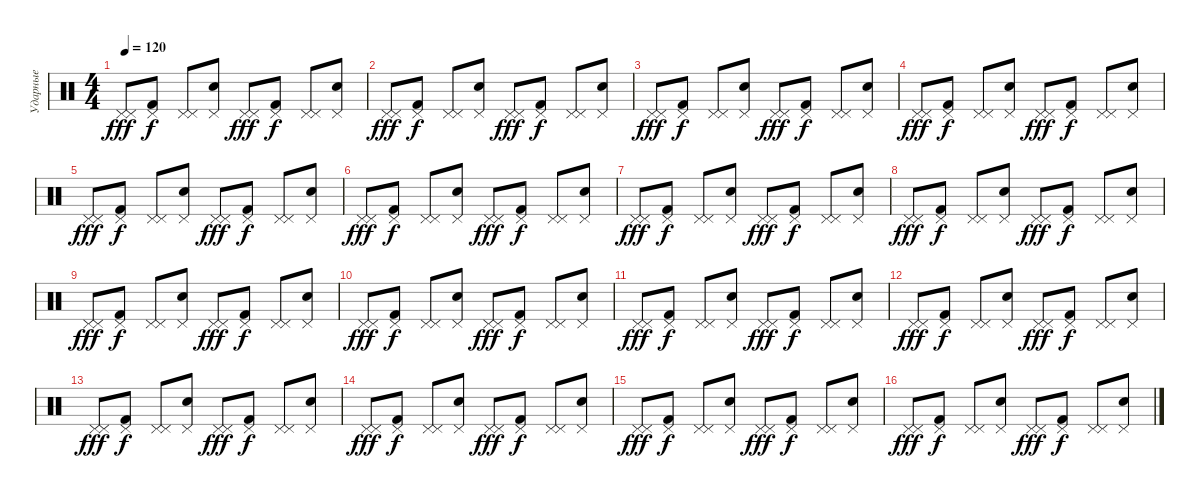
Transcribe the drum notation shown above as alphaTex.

\track ("Ударные" "Ударные") {instrument percussion}
\staff {score}
\articulation defaults
\ts (4 4)
\tempo 120
\clef neutral
\ks c
("Pedal Hi-Hat (hit)" "Pedal Hi-Hat (hit)").8{dy fff} ("Pedal Hi-Hat (hit)" "Kick (hit) 2").8{dy f} ("Pedal Hi-Hat (hit)" "Pedal Hi-Hat (hit)").8 ("Pedal Hi-Hat (hit)" "Hand Clap (hit)").8 ("Pedal Hi-Hat (hit)" "Pedal Hi-Hat (hit)").8{dy fff} ("Pedal Hi-Hat (hit)" "Kick (hit) 2").8{dy f} ("Pedal Hi-Hat (hit)" "Pedal Hi-Hat (hit)").8 ("Pedal Hi-Hat (hit)" "Hand Clap (hit)").8 |
("Pedal Hi-Hat (hit)" "Pedal Hi-Hat (hit)").8{dy fff} ("Pedal Hi-Hat (hit)" "Kick (hit) 2").8{dy f} ("Pedal Hi-Hat (hit)" "Pedal Hi-Hat (hit)").8 ("Pedal Hi-Hat (hit)" "Hand Clap (hit)").8 ("Pedal Hi-Hat (hit)" "Pedal Hi-Hat (hit)").8{dy fff} ("Pedal Hi-Hat (hit)" "Kick (hit) 2").8{dy f} ("Pedal Hi-Hat (hit)" "Pedal Hi-Hat (hit)").8 ("Pedal Hi-Hat (hit)" "Hand Clap (hit)").8 |
("Pedal Hi-Hat (hit)" "Pedal Hi-Hat (hit)").8{dy fff} ("Pedal Hi-Hat (hit)" "Kick (hit) 2").8{dy f} ("Pedal Hi-Hat (hit)" "Pedal Hi-Hat (hit)").8 ("Pedal Hi-Hat (hit)" "Hand Clap (hit)").8 ("Pedal Hi-Hat (hit)" "Pedal Hi-Hat (hit)").8{dy fff} ("Pedal Hi-Hat (hit)" "Kick (hit) 2").8{dy f} ("Pedal Hi-Hat (hit)" "Pedal Hi-Hat (hit)").8 ("Pedal Hi-Hat (hit)" "Hand Clap (hit)").8 |
("Pedal Hi-Hat (hit)" "Pedal Hi-Hat (hit)").8{dy fff} ("Pedal Hi-Hat (hit)" "Kick (hit) 2").8{dy f} ("Pedal Hi-Hat (hit)" "Pedal Hi-Hat (hit)").8 ("Pedal Hi-Hat (hit)" "Hand Clap (hit)").8 ("Pedal Hi-Hat (hit)" "Pedal Hi-Hat (hit)").8{dy fff} ("Pedal Hi-Hat (hit)" "Kick (hit) 2").8{dy f} ("Pedal Hi-Hat (hit)" "Pedal Hi-Hat (hit)").8 ("Pedal Hi-Hat (hit)" "Hand Clap (hit)").8 |
("Pedal Hi-Hat (hit)" "Pedal Hi-Hat (hit)").8{dy fff} ("Pedal Hi-Hat (hit)" "Kick (hit) 2").8{dy f} ("Pedal Hi-Hat (hit)" "Pedal Hi-Hat (hit)").8 ("Pedal Hi-Hat (hit)" "Hand Clap (hit)").8 ("Pedal Hi-Hat (hit)" "Pedal Hi-Hat (hit)").8{dy fff} ("Pedal Hi-Hat (hit)" "Kick (hit) 2").8{dy f} ("Pedal Hi-Hat (hit)" "Pedal Hi-Hat (hit)").8 ("Pedal Hi-Hat (hit)" "Hand Clap (hit)").8 |
("Pedal Hi-Hat (hit)" "Pedal Hi-Hat (hit)").8{dy fff} ("Pedal Hi-Hat (hit)" "Kick (hit) 2").8{dy f} ("Pedal Hi-Hat (hit)" "Pedal Hi-Hat (hit)").8 ("Pedal Hi-Hat (hit)" "Hand Clap (hit)").8 ("Pedal Hi-Hat (hit)" "Pedal Hi-Hat (hit)").8{dy fff} ("Pedal Hi-Hat (hit)" "Kick (hit) 2").8{dy f} ("Pedal Hi-Hat (hit)" "Pedal Hi-Hat (hit)").8 ("Pedal Hi-Hat (hit)" "Hand Clap (hit)").8 |
("Pedal Hi-Hat (hit)" "Pedal Hi-Hat (hit)").8{dy fff} ("Pedal Hi-Hat (hit)" "Kick (hit) 2").8{dy f} ("Pedal Hi-Hat (hit)" "Pedal Hi-Hat (hit)").8 ("Pedal Hi-Hat (hit)" "Hand Clap (hit)").8 ("Pedal Hi-Hat (hit)" "Pedal Hi-Hat (hit)").8{dy fff} ("Pedal Hi-Hat (hit)" "Kick (hit) 2").8{dy f} ("Pedal Hi-Hat (hit)" "Pedal Hi-Hat (hit)").8 ("Pedal Hi-Hat (hit)" "Hand Clap (hit)").8 |
("Pedal Hi-Hat (hit)" "Pedal Hi-Hat (hit)").8{dy fff} ("Pedal Hi-Hat (hit)" "Kick (hit) 2").8{dy f} ("Pedal Hi-Hat (hit)" "Pedal Hi-Hat (hit)").8 ("Pedal Hi-Hat (hit)" "Hand Clap (hit)").8 ("Pedal Hi-Hat (hit)" "Pedal Hi-Hat (hit)").8{dy fff} ("Pedal Hi-Hat (hit)" "Kick (hit) 2").8{dy f} ("Pedal Hi-Hat (hit)" "Pedal Hi-Hat (hit)").8 ("Pedal Hi-Hat (hit)" "Hand Clap (hit)").8 |
("Pedal Hi-Hat (hit)" "Pedal Hi-Hat (hit)").8{dy fff} ("Pedal Hi-Hat (hit)" "Kick (hit) 2").8{dy f} ("Pedal Hi-Hat (hit)" "Pedal Hi-Hat (hit)").8 ("Pedal Hi-Hat (hit)" "Hand Clap (hit)").8 ("Pedal Hi-Hat (hit)" "Pedal Hi-Hat (hit)").8{dy fff} ("Pedal Hi-Hat (hit)" "Kick (hit) 2").8{dy f} ("Pedal Hi-Hat (hit)" "Pedal Hi-Hat (hit)").8 ("Pedal Hi-Hat (hit)" "Hand Clap (hit)").8 |
("Pedal Hi-Hat (hit)" "Pedal Hi-Hat (hit)").8{dy fff} ("Pedal Hi-Hat (hit)" "Kick (hit) 2").8{dy f} ("Pedal Hi-Hat (hit)" "Pedal Hi-Hat (hit)").8 ("Pedal Hi-Hat (hit)" "Hand Clap (hit)").8 ("Pedal Hi-Hat (hit)" "Pedal Hi-Hat (hit)").8{dy fff} ("Pedal Hi-Hat (hit)" "Kick (hit) 2").8{dy f} ("Pedal Hi-Hat (hit)" "Pedal Hi-Hat (hit)").8 ("Pedal Hi-Hat (hit)" "Hand Clap (hit)").8 |
("Pedal Hi-Hat (hit)" "Pedal Hi-Hat (hit)").8{dy fff} ("Pedal Hi-Hat (hit)" "Kick (hit) 2").8{dy f} ("Pedal Hi-Hat (hit)" "Pedal Hi-Hat (hit)").8 ("Pedal Hi-Hat (hit)" "Hand Clap (hit)").8 ("Pedal Hi-Hat (hit)" "Pedal Hi-Hat (hit)").8{dy fff} ("Pedal Hi-Hat (hit)" "Kick (hit) 2").8{dy f} ("Pedal Hi-Hat (hit)" "Pedal Hi-Hat (hit)").8 ("Pedal Hi-Hat (hit)" "Hand Clap (hit)").8 |
("Pedal Hi-Hat (hit)" "Pedal Hi-Hat (hit)").8{dy fff} ("Pedal Hi-Hat (hit)" "Kick (hit) 2").8{dy f} ("Pedal Hi-Hat (hit)" "Pedal Hi-Hat (hit)").8 ("Pedal Hi-Hat (hit)" "Hand Clap (hit)").8 ("Pedal Hi-Hat (hit)" "Pedal Hi-Hat (hit)").8{dy fff} ("Pedal Hi-Hat (hit)" "Kick (hit) 2").8{dy f} ("Pedal Hi-Hat (hit)" "Pedal Hi-Hat (hit)").8 ("Pedal Hi-Hat (hit)" "Hand Clap (hit)").8 |
("Pedal Hi-Hat (hit)" "Pedal Hi-Hat (hit)").8{dy fff} ("Pedal Hi-Hat (hit)" "Kick (hit) 2").8{dy f} ("Pedal Hi-Hat (hit)" "Pedal Hi-Hat (hit)").8 ("Pedal Hi-Hat (hit)" "Hand Clap (hit)").8 ("Pedal Hi-Hat (hit)" "Pedal Hi-Hat (hit)").8{dy fff} ("Pedal Hi-Hat (hit)" "Kick (hit) 2").8{dy f} ("Pedal Hi-Hat (hit)" "Pedal Hi-Hat (hit)").8 ("Pedal Hi-Hat (hit)" "Hand Clap (hit)").8 |
("Pedal Hi-Hat (hit)" "Pedal Hi-Hat (hit)").8{dy fff} ("Pedal Hi-Hat (hit)" "Kick (hit) 2").8{dy f} ("Pedal Hi-Hat (hit)" "Pedal Hi-Hat (hit)").8 ("Pedal Hi-Hat (hit)" "Hand Clap (hit)").8 ("Pedal Hi-Hat (hit)" "Pedal Hi-Hat (hit)").8{dy fff} ("Pedal Hi-Hat (hit)" "Kick (hit) 2").8{dy f} ("Pedal Hi-Hat (hit)" "Pedal Hi-Hat (hit)").8 ("Pedal Hi-Hat (hit)" "Hand Clap (hit)").8 |
("Pedal Hi-Hat (hit)" "Pedal Hi-Hat (hit)").8{dy fff} ("Pedal Hi-Hat (hit)" "Kick (hit) 2").8{dy f} ("Pedal Hi-Hat (hit)" "Pedal Hi-Hat (hit)").8 ("Pedal Hi-Hat (hit)" "Hand Clap (hit)").8 ("Pedal Hi-Hat (hit)" "Pedal Hi-Hat (hit)").8{dy fff} ("Pedal Hi-Hat (hit)" "Kick (hit) 2").8{dy f} ("Pedal Hi-Hat (hit)" "Pedal Hi-Hat (hit)").8 ("Pedal Hi-Hat (hit)" "Hand Clap (hit)").8 |
("Pedal Hi-Hat (hit)" "Pedal Hi-Hat (hit)").8{dy fff} ("Pedal Hi-Hat (hit)" "Kick (hit) 2").8{dy f} ("Pedal Hi-Hat (hit)" "Pedal Hi-Hat (hit)").8 ("Pedal Hi-Hat (hit)" "Hand Clap (hit)").8 ("Pedal Hi-Hat (hit)" "Pedal Hi-Hat (hit)").8{dy fff} ("Pedal Hi-Hat (hit)" "Kick (hit) 2").8{dy f} ("Pedal Hi-Hat (hit)" "Pedal Hi-Hat (hit)").8 ("Pedal Hi-Hat (hit)" "Hand Clap (hit)").8
